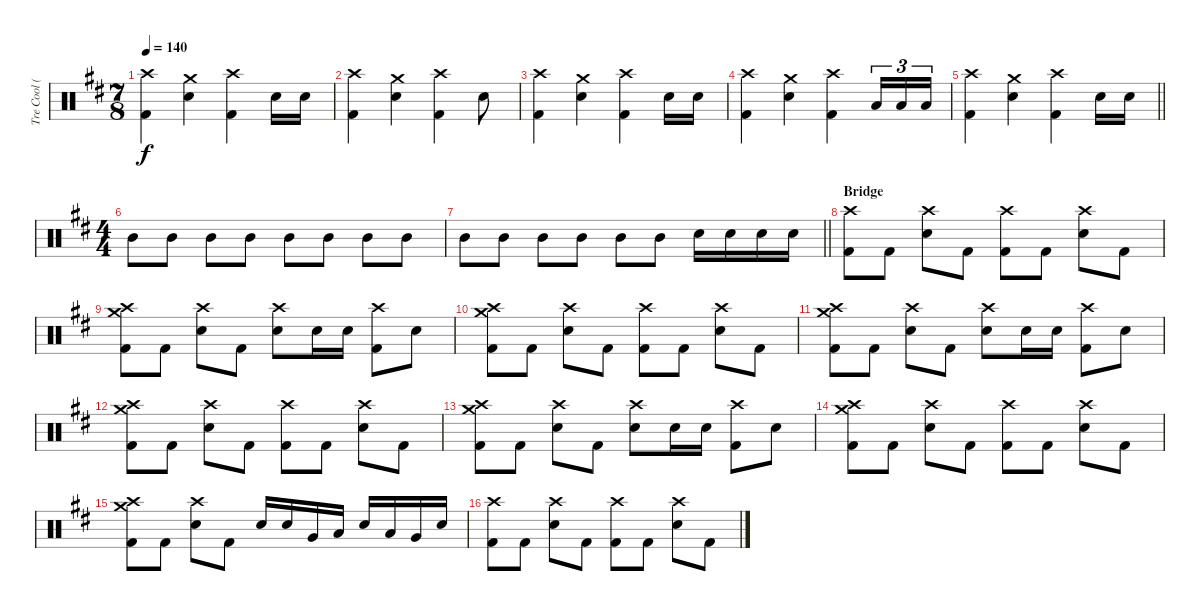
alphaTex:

\track ("Tre Cool (Drums)" "Tre Cool (") {instrument percussion}
\staff {score}
\articulation defaults
\ts (7 8)
\tempo 140
\clef neutral
\ks d
("Crash high (hit)" "Kick (hit) 2").4{dy f} ("Crash medium (hit)" "Electric Snare (hit)").4 ("Crash high (hit)" "Kick (hit) 2").4 "Electric Snare (hit)".16 "Electric Snare (hit)".16 |
("Crash high (hit)" "Kick (hit) 2").4 ("Crash medium (hit)" "Electric Snare (hit)").4 ("Crash high (hit)" "Kick (hit) 2").4 "Electric Snare (hit)".8 |
("Crash high (hit)" "Kick (hit) 2").4 ("Crash medium (hit)" "Electric Snare (hit)").4 ("Crash high (hit)" "Kick (hit) 2").4 "Electric Snare (hit)".16 "Electric Snare (hit)".16 |
("Kick (hit) 2" "Crash high (hit)").4 ("Electric Snare (hit)" "Crash medium (hit)").4 ("Kick (hit) 2" "Crash high (hit)").4 "Low Tom (hit)".16{tu (3 2)} "Low Tom (hit)".16{tu (3 2)} "Low Tom (hit)".16{tu (3 2)} |
\barLineRight lightlight
("Crash high (hit)" "Kick (hit) 2").4 ("Crash medium (hit)" "Electric Snare (hit)").4 ("Crash high (hit)" "Kick (hit) 2").4 "Electric Snare (hit)".16 "Electric Snare (hit)".16 |
\ts (4 4)
"Mid Tom (hit)".8 "Mid Tom (hit)".8 "Mid Tom (hit)".8 "Mid Tom (hit)".8 "Mid Tom (hit)".8 "Mid Tom (hit)".8 "Mid Tom (hit)".8 "Mid Tom (hit)".8 |
\barLineRight lightlight "Mid Tom (hit)".8 "Mid Tom (hit)".8 "Mid Tom (hit)".8 "Mid Tom (hit)".8 "Mid Tom (hit)".8 "Mid Tom (hit)".8 "Electric Snare (hit)".16 "Electric Snare (hit)".16 "Electric Snare (hit)".16 "Electric Snare (hit)".16
|
\section ("" "Bridge")
("Crash high (hit)" "Kick (hit) 2").8 "Kick (hit) 2".8 ("Crash high (hit)" "Electric Snare (hit)").8 "Kick (hit) 2".8 ("Crash high (hit)" "Kick (hit) 2").8 "Kick (hit) 2".8 ("Crash high (hit)" "Electric Snare (hit)").8 "Kick (hit) 2".8 |
("Crash high (hit)" "Crash medium (hit)" "Kick (hit) 2").8 "Kick (hit) 2".8 ("Crash high (hit)" "Electric Snare (hit)").8 "Kick (hit) 2".8 ("Crash high (hit)" "Electric Snare (hit)").8 "Electric Snare (hit)".16 "Electric Snare (hit)".16 ("Crash high (hit)" "Kick (hit) 2").8 "Electric Snare (hit)".8 |
("Crash high (hit)" "Crash medium (hit)" "Kick (hit) 2").8 "Kick (hit) 2".8 ("Crash high (hit)" "Electric Snare (hit)").8 "Kick (hit) 2".8 ("Crash high (hit)" "Kick (hit) 2").8 "Kick (hit) 2".8 ("Crash high (hit)" "Electric Snare (hit)").8 "Kick (hit) 2".8 |
("Crash high (hit)" "Crash medium (hit)" "Kick (hit) 2").8 "Kick (hit) 2".8 ("Crash high (hit)" "Electric Snare (hit)").8 "Kick (hit) 2".8 ("Crash high (hit)" "Electric Snare (hit)").8 "Electric Snare (hit)".16 "Electric Snare (hit)".16 ("Crash high (hit)" "Kick (hit) 2").8 "Electric Snare (hit)".8 |
("Crash high (hit)" "Crash medium (hit)" "Kick (hit) 2").8 "Kick (hit) 2".8 ("Crash high (hit)" "Electric Snare (hit)").8 "Kick (hit) 2".8 ("Crash high (hit)" "Kick (hit) 2").8 "Kick (hit) 2".8 ("Crash high (hit)" "Electric Snare (hit)").8 "Kick (hit) 2".8 |
("Crash high (hit)" "Crash medium (hit)" "Kick (hit) 2").8 "Kick (hit) 2".8 ("Crash high (hit)" "Electric Snare (hit)").8 "Kick (hit) 2".8 ("Crash high (hit)" "Electric Snare (hit)").8 "Electric Snare (hit)".16 "Electric Snare (hit)".16 ("Crash high (hit)" "Kick (hit) 2").8 "Electric Snare (hit)".8 |
("Crash high (hit)" "Crash medium (hit)" "Kick (hit) 2").8 "Kick (hit) 2".8 ("Crash high (hit)" "Electric Snare (hit)").8 "Kick (hit) 2".8 ("Crash high (hit)" "Kick (hit) 2").8 "Kick (hit) 2".8 ("Crash high (hit)" "Electric Snare (hit)").8 "Kick (hit) 2".8 |
("Crash high (hit)" "Crash medium (hit)" "Kick (hit) 2").8 "Kick (hit) 2".8 ("Crash high (hit)" "Electric Snare (hit)").8 "Kick (hit) 2".8 "Electric Snare (hit)".16 "Electric Snare (hit)".16 "Very Low Tom (hit)".16 "Low Tom (hit)".16 "Electric Snare (hit)".16 "Low Tom (hit)".16 "Very Low Tom (hit)".16 "Electric Snare (hit)".16 |
("Crash high (hit)" "Kick (hit) 2").8 "Kick (hit) 2".8 ("Crash high (hit)" "Electric Snare (hit)").8 "Kick (hit) 2".8 ("Crash high (hit)" "Kick (hit) 2").8 "Kick (hit) 2".8 ("Crash high (hit)" "Electric Snare (hit)").8 "Kick (hit) 2".8
